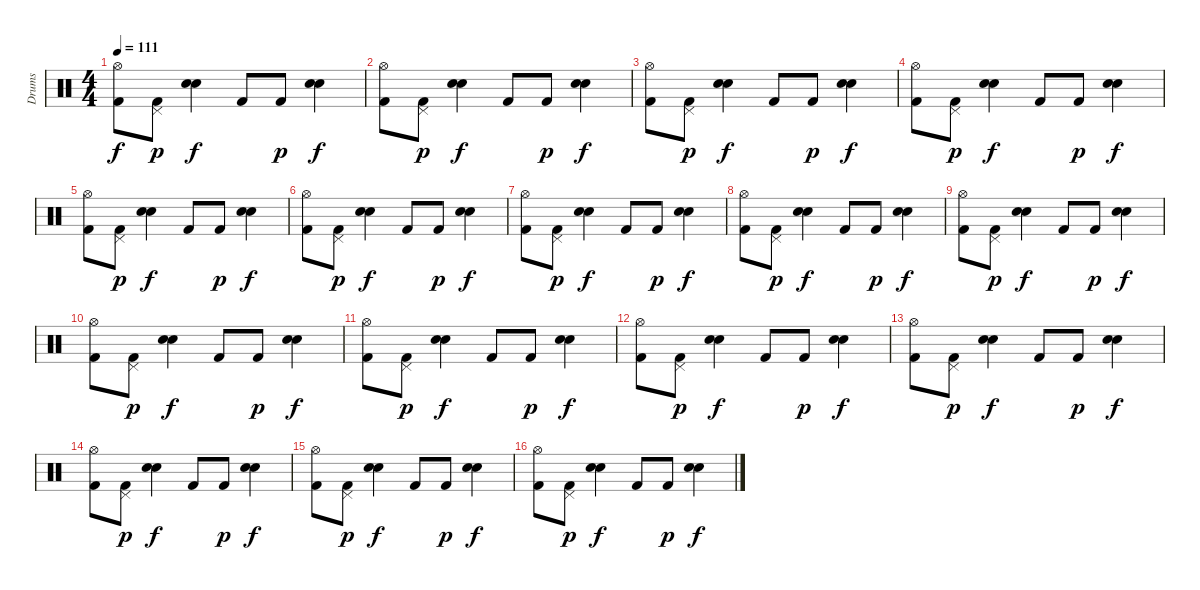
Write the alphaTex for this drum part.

\track ("Drums" "Drums") {instrument percussion}
\staff {score}
\articulation defaults
\ts (4 4)
\tempo 111
\clef neutral
\ks c
("Hi-Hat (open)" "Kick (hit) 2").8{dy f} ("Kick (hit) 2" "Pedal Hi-Hat (hit)").8{dy p} ("Snare (hit) 2" "Snare (hit) 2").4{dy f} "Kick (hit) 2".8 "Kick (hit) 2".8{dy p} ("Snare (hit) 2" "Snare (hit) 2").4{dy f} |
("Hi-Hat (open)" "Kick (hit) 2").8 ("Kick (hit) 2" "Pedal Hi-Hat (hit)").8{dy p} ("Snare (hit) 2" "Snare (hit) 2").4{dy f} "Kick (hit) 2".8 "Kick (hit) 2".8{dy p} ("Snare (hit) 2" "Snare (hit) 2").4{dy f} |
("Hi-Hat (open)" "Kick (hit) 2").8 ("Kick (hit) 2" "Pedal Hi-Hat (hit)").8{dy p} ("Snare (hit) 2" "Snare (hit) 2").4{dy f} "Kick (hit) 2".8 "Kick (hit) 2".8{dy p} ("Snare (hit) 2" "Snare (hit) 2").4{dy f} |
("Hi-Hat (open)" "Kick (hit) 2").8 ("Kick (hit) 2" "Pedal Hi-Hat (hit)").8{dy p} ("Snare (hit) 2" "Snare (hit) 2").4{dy f} "Kick (hit) 2".8 "Kick (hit) 2".8{dy p} ("Snare (hit) 2" "Snare (hit) 2").4{dy f} |
("Hi-Hat (open)" "Kick (hit) 2").8 ("Kick (hit) 2" "Pedal Hi-Hat (hit)").8{dy p} ("Snare (hit) 2" "Snare (hit) 2").4{dy f} "Kick (hit) 2".8 "Kick (hit) 2".8{dy p} ("Snare (hit) 2" "Snare (hit) 2").4{dy f} |
("Hi-Hat (open)" "Kick (hit) 2").8 ("Kick (hit) 2" "Pedal Hi-Hat (hit)").8{dy p} ("Snare (hit) 2" "Snare (hit) 2").4{dy f} "Kick (hit) 2".8 "Kick (hit) 2".8{dy p} ("Snare (hit) 2" "Snare (hit) 2").4{dy f} |
("Hi-Hat (open)" "Kick (hit) 2").8 ("Kick (hit) 2" "Pedal Hi-Hat (hit)").8{dy p} ("Snare (hit) 2" "Snare (hit) 2").4{dy f} "Kick (hit) 2".8 "Kick (hit) 2".8{dy p} ("Snare (hit) 2" "Snare (hit) 2").4{dy f} |
("Hi-Hat (open)" "Kick (hit) 2").8 ("Kick (hit) 2" "Pedal Hi-Hat (hit)").8{dy p} ("Snare (hit) 2" "Snare (hit) 2").4{dy f} "Kick (hit) 2".8 "Kick (hit) 2".8{dy p} ("Snare (hit) 2" "Snare (hit) 2").4{dy f} |
("Hi-Hat (open)" "Kick (hit) 2").8 ("Kick (hit) 2" "Pedal Hi-Hat (hit)").8{dy p} ("Snare (hit) 2" "Snare (hit) 2").4{dy f} "Kick (hit) 2".8 "Kick (hit) 2".8{dy p} ("Snare (hit) 2" "Snare (hit) 2").4{dy f} |
("Hi-Hat (open)" "Kick (hit) 2").8 ("Kick (hit) 2" "Pedal Hi-Hat (hit)").8{dy p} ("Snare (hit) 2" "Snare (hit) 2").4{dy f} "Kick (hit) 2".8 "Kick (hit) 2".8{dy p} ("Snare (hit) 2" "Snare (hit) 2").4{dy f} |
("Hi-Hat (open)" "Kick (hit) 2").8 ("Kick (hit) 2" "Pedal Hi-Hat (hit)").8{dy p} ("Snare (hit) 2" "Snare (hit) 2").4{dy f} "Kick (hit) 2".8 "Kick (hit) 2".8{dy p} ("Snare (hit) 2" "Snare (hit) 2").4{dy f} |
("Hi-Hat (open)" "Kick (hit) 2").8 ("Kick (hit) 2" "Pedal Hi-Hat (hit)").8{dy p} ("Snare (hit) 2" "Snare (hit) 2").4{dy f} "Kick (hit) 2".8 "Kick (hit) 2".8{dy p} ("Snare (hit) 2" "Snare (hit) 2").4{dy f} |
("Hi-Hat (open)" "Kick (hit) 2").8 ("Kick (hit) 2" "Pedal Hi-Hat (hit)").8{dy p} ("Snare (hit) 2" "Snare (hit) 2").4{dy f} "Kick (hit) 2".8 "Kick (hit) 2".8{dy p} ("Snare (hit) 2" "Snare (hit) 2").4{dy f} |
("Hi-Hat (open)" "Kick (hit) 2").8 ("Kick (hit) 2" "Pedal Hi-Hat (hit)").8{dy p} ("Snare (hit) 2" "Snare (hit) 2").4{dy f} "Kick (hit) 2".8 "Kick (hit) 2".8{dy p} ("Snare (hit) 2" "Snare (hit) 2").4{dy f} |
("Hi-Hat (open)" "Kick (hit) 2").8 ("Kick (hit) 2" "Pedal Hi-Hat (hit)").8{dy p} ("Snare (hit) 2" "Snare (hit) 2").4{dy f} "Kick (hit) 2".8 "Kick (hit) 2".8{dy p} ("Snare (hit) 2" "Snare (hit) 2").4{dy f} |
("Hi-Hat (open)" "Kick (hit) 2").8 ("Kick (hit) 2" "Pedal Hi-Hat (hit)").8{dy p} ("Snare (hit) 2" "Snare (hit) 2").4{dy f} "Kick (hit) 2".8 "Kick (hit) 2".8{dy p} ("Snare (hit) 2" "Snare (hit) 2").4{dy f}
